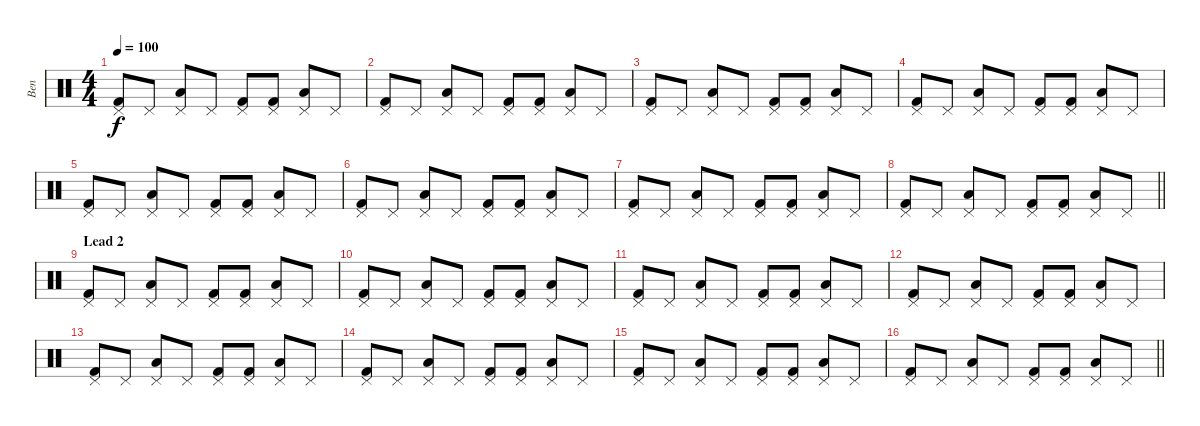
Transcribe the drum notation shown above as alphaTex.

\track ("Ben" "Ben") {instrument percussion}
\staff {score}
\articulation defaults
\ts (4 4)
\tempo 100
\clef neutral
\ks c
("Pedal Hi-Hat (hit)" "Kick (hit) 2").8{dy f} "Pedal Hi-Hat (hit)".8 ("Pedal Hi-Hat (hit)" "Low Floor Tom (hit)").8 "Pedal Hi-Hat (hit)".8 ("Pedal Hi-Hat (hit)" "Kick (hit) 2").8 ("Pedal Hi-Hat (hit)" "Kick (hit) 2").8 ("Pedal Hi-Hat (hit)" "Low Floor Tom (hit)").8 "Pedal Hi-Hat (hit)".8 |
("Pedal Hi-Hat (hit)" "Kick (hit) 2").8 "Pedal Hi-Hat (hit)".8 ("Pedal Hi-Hat (hit)" "Low Floor Tom (hit)").8 "Pedal Hi-Hat (hit)".8 ("Pedal Hi-Hat (hit)" "Kick (hit) 2").8 ("Pedal Hi-Hat (hit)" "Kick (hit) 2").8 ("Pedal Hi-Hat (hit)" "Low Floor Tom (hit)").8 "Pedal Hi-Hat (hit)".8 |
("Pedal Hi-Hat (hit)" "Kick (hit) 2").8 "Pedal Hi-Hat (hit)".8 ("Pedal Hi-Hat (hit)" "Low Floor Tom (hit)").8 "Pedal Hi-Hat (hit)".8 ("Pedal Hi-Hat (hit)" "Kick (hit) 2").8 ("Pedal Hi-Hat (hit)" "Kick (hit) 2").8 ("Pedal Hi-Hat (hit)" "Low Floor Tom (hit)").8 "Pedal Hi-Hat (hit)".8 |
("Pedal Hi-Hat (hit)" "Kick (hit) 2").8 "Pedal Hi-Hat (hit)".8 ("Pedal Hi-Hat (hit)" "Low Floor Tom (hit)").8 "Pedal Hi-Hat (hit)".8 ("Pedal Hi-Hat (hit)" "Kick (hit) 2").8 ("Pedal Hi-Hat (hit)" "Kick (hit) 2").8 ("Pedal Hi-Hat (hit)" "Low Floor Tom (hit)").8 "Pedal Hi-Hat (hit)".8 |
("Pedal Hi-Hat (hit)" "Kick (hit) 2").8 "Pedal Hi-Hat (hit)".8 ("Pedal Hi-Hat (hit)" "Low Floor Tom (hit)").8 "Pedal Hi-Hat (hit)".8 ("Pedal Hi-Hat (hit)" "Kick (hit) 2").8 ("Pedal Hi-Hat (hit)" "Kick (hit) 2").8 ("Pedal Hi-Hat (hit)" "Low Floor Tom (hit)").8 "Pedal Hi-Hat (hit)".8 |
("Pedal Hi-Hat (hit)" "Kick (hit) 2").8 "Pedal Hi-Hat (hit)".8 ("Pedal Hi-Hat (hit)" "Low Floor Tom (hit)").8 "Pedal Hi-Hat (hit)".8 ("Pedal Hi-Hat (hit)" "Kick (hit) 2").8 ("Pedal Hi-Hat (hit)" "Kick (hit) 2").8 ("Pedal Hi-Hat (hit)" "Low Floor Tom (hit)").8 "Pedal Hi-Hat (hit)".8 |
("Pedal Hi-Hat (hit)" "Kick (hit) 2").8 "Pedal Hi-Hat (hit)".8 ("Pedal Hi-Hat (hit)" "Low Floor Tom (hit)").8 "Pedal Hi-Hat (hit)".8 ("Pedal Hi-Hat (hit)" "Kick (hit) 2").8 ("Pedal Hi-Hat (hit)" "Kick (hit) 2").8 ("Pedal Hi-Hat (hit)" "Low Floor Tom (hit)").8 "Pedal Hi-Hat (hit)".8 |
\barLineRight lightlight
("Pedal Hi-Hat (hit)" "Kick (hit) 2").8 "Pedal Hi-Hat (hit)".8 ("Pedal Hi-Hat (hit)" "Low Floor Tom (hit)").8 "Pedal Hi-Hat (hit)".8 ("Pedal Hi-Hat (hit)" "Kick (hit) 2").8 ("Pedal Hi-Hat (hit)" "Kick (hit) 2").8 ("Pedal Hi-Hat (hit)" "Low Floor Tom (hit)").8 "Pedal Hi-Hat (hit)".8 |
\section ("" "Lead 2")
("Pedal Hi-Hat (hit)" "Kick (hit) 2").8 "Pedal Hi-Hat (hit)".8 ("Pedal Hi-Hat (hit)" "Low Floor Tom (hit)").8 "Pedal Hi-Hat (hit)".8 ("Pedal Hi-Hat (hit)" "Kick (hit) 2").8 ("Pedal Hi-Hat (hit)" "Kick (hit) 2").8 ("Pedal Hi-Hat (hit)" "Low Floor Tom (hit)").8 "Pedal Hi-Hat (hit)".8 |
("Pedal Hi-Hat (hit)" "Kick (hit) 2").8 "Pedal Hi-Hat (hit)".8 ("Pedal Hi-Hat (hit)" "Low Floor Tom (hit)").8 "Pedal Hi-Hat (hit)".8 ("Pedal Hi-Hat (hit)" "Kick (hit) 2").8 ("Pedal Hi-Hat (hit)" "Kick (hit) 2").8 ("Pedal Hi-Hat (hit)" "Low Floor Tom (hit)").8 "Pedal Hi-Hat (hit)".8 |
("Pedal Hi-Hat (hit)" "Kick (hit) 2").8 "Pedal Hi-Hat (hit)".8 ("Pedal Hi-Hat (hit)" "Low Floor Tom (hit)").8 "Pedal Hi-Hat (hit)".8 ("Pedal Hi-Hat (hit)" "Kick (hit) 2").8 ("Pedal Hi-Hat (hit)" "Kick (hit) 2").8 ("Pedal Hi-Hat (hit)" "Low Floor Tom (hit)").8 "Pedal Hi-Hat (hit)".8 |
("Pedal Hi-Hat (hit)" "Kick (hit) 2").8 "Pedal Hi-Hat (hit)".8 ("Pedal Hi-Hat (hit)" "Low Floor Tom (hit)").8 "Pedal Hi-Hat (hit)".8 ("Pedal Hi-Hat (hit)" "Kick (hit) 2").8 ("Pedal Hi-Hat (hit)" "Kick (hit) 2").8 ("Pedal Hi-Hat (hit)" "Low Floor Tom (hit)").8 "Pedal Hi-Hat (hit)".8 |
("Pedal Hi-Hat (hit)" "Kick (hit) 2").8 "Pedal Hi-Hat (hit)".8 ("Pedal Hi-Hat (hit)" "Low Floor Tom (hit)").8 "Pedal Hi-Hat (hit)".8 ("Pedal Hi-Hat (hit)" "Kick (hit) 2").8 ("Pedal Hi-Hat (hit)" "Kick (hit) 2").8 ("Pedal Hi-Hat (hit)" "Low Floor Tom (hit)").8 "Pedal Hi-Hat (hit)".8 |
("Pedal Hi-Hat (hit)" "Kick (hit) 2").8 "Pedal Hi-Hat (hit)".8 ("Pedal Hi-Hat (hit)" "Low Floor Tom (hit)").8 "Pedal Hi-Hat (hit)".8 ("Pedal Hi-Hat (hit)" "Kick (hit) 2").8 ("Pedal Hi-Hat (hit)" "Kick (hit) 2").8 ("Pedal Hi-Hat (hit)" "Low Floor Tom (hit)").8 "Pedal Hi-Hat (hit)".8 |
("Pedal Hi-Hat (hit)" "Kick (hit) 2").8 "Pedal Hi-Hat (hit)".8 ("Pedal Hi-Hat (hit)" "Low Floor Tom (hit)").8 "Pedal Hi-Hat (hit)".8 ("Pedal Hi-Hat (hit)" "Kick (hit) 2").8 ("Pedal Hi-Hat (hit)" "Kick (hit) 2").8 ("Pedal Hi-Hat (hit)" "Low Floor Tom (hit)").8 "Pedal Hi-Hat (hit)".8 |
\barLineRight lightlight
("Pedal Hi-Hat (hit)" "Kick (hit) 2").8 "Pedal Hi-Hat (hit)".8 ("Pedal Hi-Hat (hit)" "Low Floor Tom (hit)").8 "Pedal Hi-Hat (hit)".8 ("Pedal Hi-Hat (hit)" "Kick (hit) 2").8 ("Pedal Hi-Hat (hit)" "Kick (hit) 2").8 ("Pedal Hi-Hat (hit)" "Low Floor Tom (hit)").8 "Pedal Hi-Hat (hit)".8
